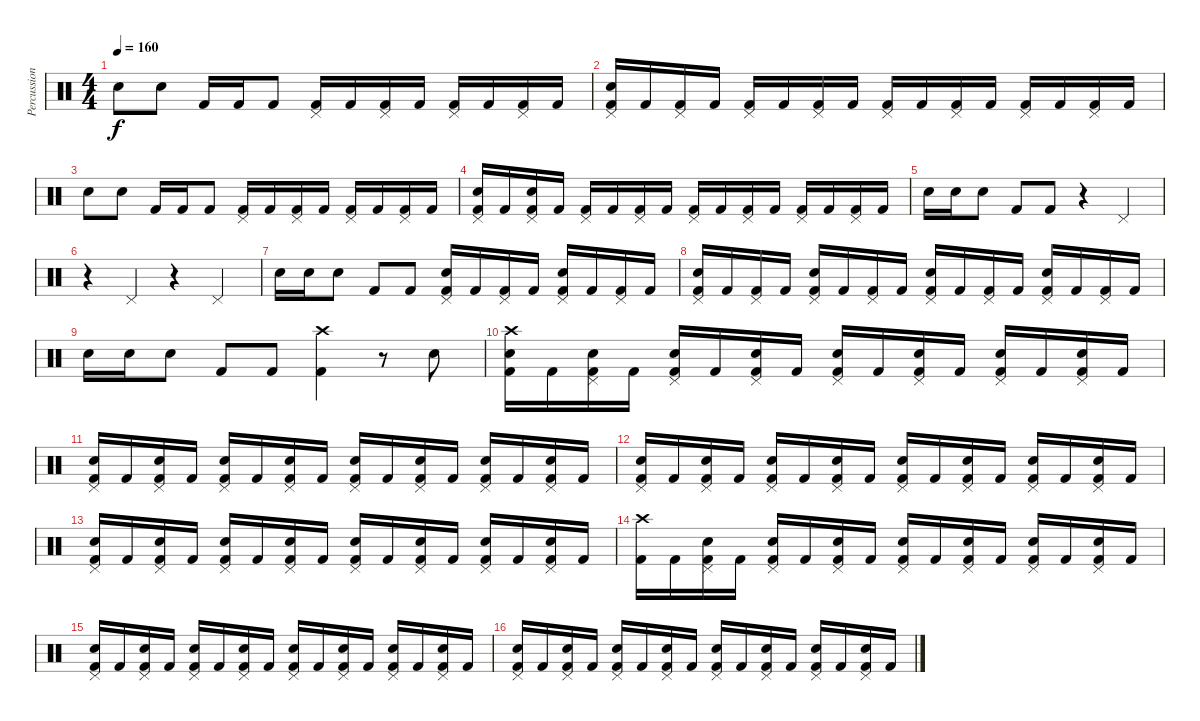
\track ("Percussion" "Percussion") {instrument percussion}
\staff {score}
\articulation defaults
\ts (4 4)
\tempo 160
\clef neutral
\ks c "Snare (hit) 2".8{dy f} "Snare (hit) 2".8 "Kick (hit) 2".16 "Kick (hit) 2".16 "Kick (hit) 2".8
("Pedal Hi-Hat (hit)" "Kick (hit) 2").16 "Kick (hit) 2".16 ("Pedal Hi-Hat (hit)" "Kick (hit) 2").16 "Kick (hit) 2".16 ("Pedal Hi-Hat (hit)" "Kick (hit) 2").16 "Kick (hit) 2".16 ("Pedal Hi-Hat (hit)" "Kick (hit) 2").16 "Kick (hit) 2".16 |
("Pedal Hi-Hat (hit)" "Snare (hit) 2" "Kick (hit) 2").16 "Kick (hit) 2".16 ("Pedal Hi-Hat (hit)" "Kick (hit) 2").16 "Kick (hit) 2".16 ("Pedal Hi-Hat (hit)" "Kick (hit) 2").16 "Kick (hit) 2".16 ("Pedal Hi-Hat (hit)" "Kick (hit) 2").16 "Kick (hit) 2".16 ("Pedal Hi-Hat (hit)" "Kick (hit) 2").16 "Kick (hit) 2".16 ("Pedal Hi-Hat (hit)" "Kick (hit) 2").16 "Kick (hit) 2".16 ("Pedal Hi-Hat (hit)" "Kick (hit) 2").16 "Kick (hit) 2".16 ("Pedal Hi-Hat (hit)" "Kick (hit) 2").16 "Kick (hit) 2".16 |
"Snare (hit) 2".8 "Snare (hit) 2".8 "Kick (hit) 2".16 "Kick (hit) 2".16 "Kick (hit) 2".8 ("Pedal Hi-Hat (hit)" "Kick (hit) 2").16 "Kick (hit) 2".16 ("Pedal Hi-Hat (hit)" "Kick (hit) 2").16 "Kick (hit) 2".16 ("Pedal Hi-Hat (hit)" "Kick (hit) 2").16 "Kick (hit) 2".16 ("Pedal Hi-Hat (hit)" "Kick (hit) 2").16 "Kick (hit) 2".16 |
("Pedal Hi-Hat (hit)" "Snare (hit) 2" "Kick (hit) 2").16 "Kick (hit) 2".16 ("Pedal Hi-Hat (hit)" "Snare (hit) 2" "Kick (hit) 2").16 "Kick (hit) 2".16 ("Pedal Hi-Hat (hit)" "Kick (hit) 2").16 "Kick (hit) 2".16 ("Pedal Hi-Hat (hit)" "Kick (hit) 2").16 "Kick (hit) 2".16 ("Pedal Hi-Hat (hit)" "Kick (hit) 2").16 "Kick (hit) 2".16 ("Pedal Hi-Hat (hit)" "Kick (hit) 2").16 "Kick (hit) 2".16 ("Pedal Hi-Hat (hit)" "Kick (hit) 2").16 "Kick (hit) 2".16 ("Pedal Hi-Hat (hit)" "Kick (hit) 2").16 "Kick (hit) 2".16 |
"Snare (hit) 2".16 "Snare (hit) 2".16 "Snare (hit) 2".8 "Kick (hit) 2".8 "Kick (hit) 2".8 r.4 "Pedal Hi-Hat (hit)".4 |
r.4 "Pedal Hi-Hat (hit)".4 r.4 "Pedal Hi-Hat (hit)".4 |
"Snare (hit) 2".16 "Snare (hit) 2".16 "Snare (hit) 2".8 "Kick (hit) 2".8 "Kick (hit) 2".8 ("Pedal Hi-Hat (hit)" "Snare (hit) 2" "Kick (hit) 2").16 "Kick (hit) 2".16 ("Pedal Hi-Hat (hit)" "Kick (hit) 2").16 "Kick (hit) 2".16 ("Pedal Hi-Hat (hit)" "Snare (hit) 2" "Kick (hit) 2").16 "Kick (hit) 2".16 ("Pedal Hi-Hat (hit)" "Kick (hit) 2").16 "Kick (hit) 2".16 |
("Pedal Hi-Hat (hit)" "Snare (hit) 2" "Kick (hit) 2").16 "Kick (hit) 2".16 ("Pedal Hi-Hat (hit)" "Kick (hit) 2").16 "Kick (hit) 2".16 ("Pedal Hi-Hat (hit)" "Snare (hit) 2" "Kick (hit) 2").16 "Kick (hit) 2".16 ("Pedal Hi-Hat (hit)" "Kick (hit) 2").16 "Kick (hit) 2".16 ("Pedal Hi-Hat (hit)" "Snare (hit) 2" "Kick (hit) 2").16 "Kick (hit) 2".16 ("Pedal Hi-Hat (hit)" "Kick (hit) 2").16 "Kick (hit) 2".16 ("Pedal Hi-Hat (hit)" "Snare (hit) 2" "Kick (hit) 2").16 "Kick (hit) 2".16 ("Pedal Hi-Hat (hit)" "Kick (hit) 2").16 "Kick (hit) 2".16 |
"Snare (hit) 2".16 "Snare (hit) 2".16 "Snare (hit) 2".8 "Kick (hit) 2".8 "Kick (hit) 2".8 ("Crash high (hit)" "Kick (hit) 2").4 r.8 "Snare (hit) 2".8 |
("Crash high (hit)" "Snare (hit) 2" "Kick (hit) 2").16 "Kick (hit) 2".16 ("Pedal Hi-Hat (hit)" "Snare (hit) 2" "Kick (hit) 2").16 "Kick (hit) 2".16 ("Pedal Hi-Hat (hit)" "Snare (hit) 2" "Kick (hit) 2").16 "Kick (hit) 2".16 ("Pedal Hi-Hat (hit)" "Snare (hit) 2" "Kick (hit) 2").16 "Kick (hit) 2".16 ("Pedal Hi-Hat (hit)" "Snare (hit) 2" "Kick (hit) 2").16 "Kick (hit) 2".16 ("Pedal Hi-Hat (hit)" "Snare (hit) 2" "Kick (hit) 2").16 "Kick (hit) 2".16 ("Pedal Hi-Hat (hit)" "Snare (hit) 2" "Kick (hit) 2").16 "Kick (hit) 2".16 ("Pedal Hi-Hat (hit)" "Snare (hit) 2" "Kick (hit) 2").16 "Kick (hit) 2".16 |
("Pedal Hi-Hat (hit)" "Snare (hit) 2" "Kick (hit) 2").16 "Kick (hit) 2".16 ("Pedal Hi-Hat (hit)" "Snare (hit) 2" "Kick (hit) 2").16 "Kick (hit) 2".16 ("Pedal Hi-Hat (hit)" "Snare (hit) 2" "Kick (hit) 2").16 "Kick (hit) 2".16 ("Pedal Hi-Hat (hit)" "Snare (hit) 2" "Kick (hit) 2").16 "Kick (hit) 2".16 ("Pedal Hi-Hat (hit)" "Snare (hit) 2" "Kick (hit) 2").16 "Kick (hit) 2".16 ("Pedal Hi-Hat (hit)" "Snare (hit) 2" "Kick (hit) 2").16 "Kick (hit) 2".16 ("Pedal Hi-Hat (hit)" "Snare (hit) 2" "Kick (hit) 2").16 "Kick (hit) 2".16 ("Pedal Hi-Hat (hit)" "Snare (hit) 2" "Kick (hit) 2").16 "Kick (hit) 2".16 |
("Pedal Hi-Hat (hit)" "Snare (hit) 2" "Kick (hit) 2").16 "Kick (hit) 2".16 ("Pedal Hi-Hat (hit)" "Snare (hit) 2" "Kick (hit) 2").16 "Kick (hit) 2".16 ("Pedal Hi-Hat (hit)" "Snare (hit) 2" "Kick (hit) 2").16 "Kick (hit) 2".16 ("Pedal Hi-Hat (hit)" "Snare (hit) 2" "Kick (hit) 2").16 "Kick (hit) 2".16 ("Pedal Hi-Hat (hit)" "Snare (hit) 2" "Kick (hit) 2").16 "Kick (hit) 2".16 ("Pedal Hi-Hat (hit)" "Snare (hit) 2" "Kick (hit) 2").16 "Kick (hit) 2".16 ("Pedal Hi-Hat (hit)" "Snare (hit) 2" "Kick (hit) 2").16 "Kick (hit) 2".16 ("Pedal Hi-Hat (hit)" "Snare (hit) 2" "Kick (hit) 2").16 "Kick (hit) 2".16 |
("Pedal Hi-Hat (hit)" "Snare (hit) 2" "Kick (hit) 2").16 "Kick (hit) 2".16 ("Pedal Hi-Hat (hit)" "Snare (hit) 2" "Kick (hit) 2").16 "Kick (hit) 2".16 ("Pedal Hi-Hat (hit)" "Snare (hit) 2" "Kick (hit) 2").16 "Kick (hit) 2".16 ("Pedal Hi-Hat (hit)" "Snare (hit) 2" "Kick (hit) 2").16 "Kick (hit) 2".16 ("Pedal Hi-Hat (hit)" "Snare (hit) 2" "Kick (hit) 2").16 "Kick (hit) 2".16 ("Pedal Hi-Hat (hit)" "Snare (hit) 2" "Kick (hit) 2").16 "Kick (hit) 2".16 ("Pedal Hi-Hat (hit)" "Snare (hit) 2" "Kick (hit) 2").16 "Kick (hit) 2".16 ("Pedal Hi-Hat (hit)" "Snare (hit) 2" "Kick (hit) 2").16 "Kick (hit) 2".16 |
("Crash high (hit)" "Kick (hit) 2").16 "Kick (hit) 2".16 ("Pedal Hi-Hat (hit)" "Snare (hit) 2" "Kick (hit) 2").16 "Kick (hit) 2".16 ("Pedal Hi-Hat (hit)" "Snare (hit) 2" "Kick (hit) 2").16 "Kick (hit) 2".16 ("Pedal Hi-Hat (hit)" "Snare (hit) 2" "Kick (hit) 2").16 "Kick (hit) 2".16 ("Pedal Hi-Hat (hit)" "Snare (hit) 2" "Kick (hit) 2").16 "Kick (hit) 2".16 ("Pedal Hi-Hat (hit)" "Snare (hit) 2" "Kick (hit) 2").16 "Kick (hit) 2".16 ("Pedal Hi-Hat (hit)" "Snare (hit) 2" "Kick (hit) 2").16 "Kick (hit) 2".16 ("Pedal Hi-Hat (hit)" "Snare (hit) 2" "Kick (hit) 2").16 "Kick (hit) 2".16 |
("Pedal Hi-Hat (hit)" "Snare (hit) 2" "Kick (hit) 2").16 "Kick (hit) 2".16 ("Pedal Hi-Hat (hit)" "Snare (hit) 2" "Kick (hit) 2").16 "Kick (hit) 2".16 ("Pedal Hi-Hat (hit)" "Snare (hit) 2" "Kick (hit) 2").16 "Kick (hit) 2".16 ("Pedal Hi-Hat (hit)" "Snare (hit) 2" "Kick (hit) 2").16 "Kick (hit) 2".16 ("Pedal Hi-Hat (hit)" "Snare (hit) 2" "Kick (hit) 2").16 "Kick (hit) 2".16 ("Pedal Hi-Hat (hit)" "Snare (hit) 2" "Kick (hit) 2").16 "Kick (hit) 2".16 ("Pedal Hi-Hat (hit)" "Snare (hit) 2" "Kick (hit) 2").16 "Kick (hit) 2".16 ("Pedal Hi-Hat (hit)" "Snare (hit) 2" "Kick (hit) 2").16 "Kick (hit) 2".16 |
("Pedal Hi-Hat (hit)" "Snare (hit) 2" "Kick (hit) 2").16 "Kick (hit) 2".16 ("Pedal Hi-Hat (hit)" "Snare (hit) 2" "Kick (hit) 2").16 "Kick (hit) 2".16 ("Pedal Hi-Hat (hit)" "Snare (hit) 2" "Kick (hit) 2").16 "Kick (hit) 2".16 ("Pedal Hi-Hat (hit)" "Snare (hit) 2" "Kick (hit) 2").16 "Kick (hit) 2".16 ("Pedal Hi-Hat (hit)" "Snare (hit) 2" "Kick (hit) 2").16 "Kick (hit) 2".16 ("Pedal Hi-Hat (hit)" "Snare (hit) 2" "Kick (hit) 2").16 "Kick (hit) 2".16 ("Pedal Hi-Hat (hit)" "Snare (hit) 2" "Kick (hit) 2").16 "Kick (hit) 2".16 ("Pedal Hi-Hat (hit)" "Snare (hit) 2" "Kick (hit) 2").16 "Kick (hit) 2".16
